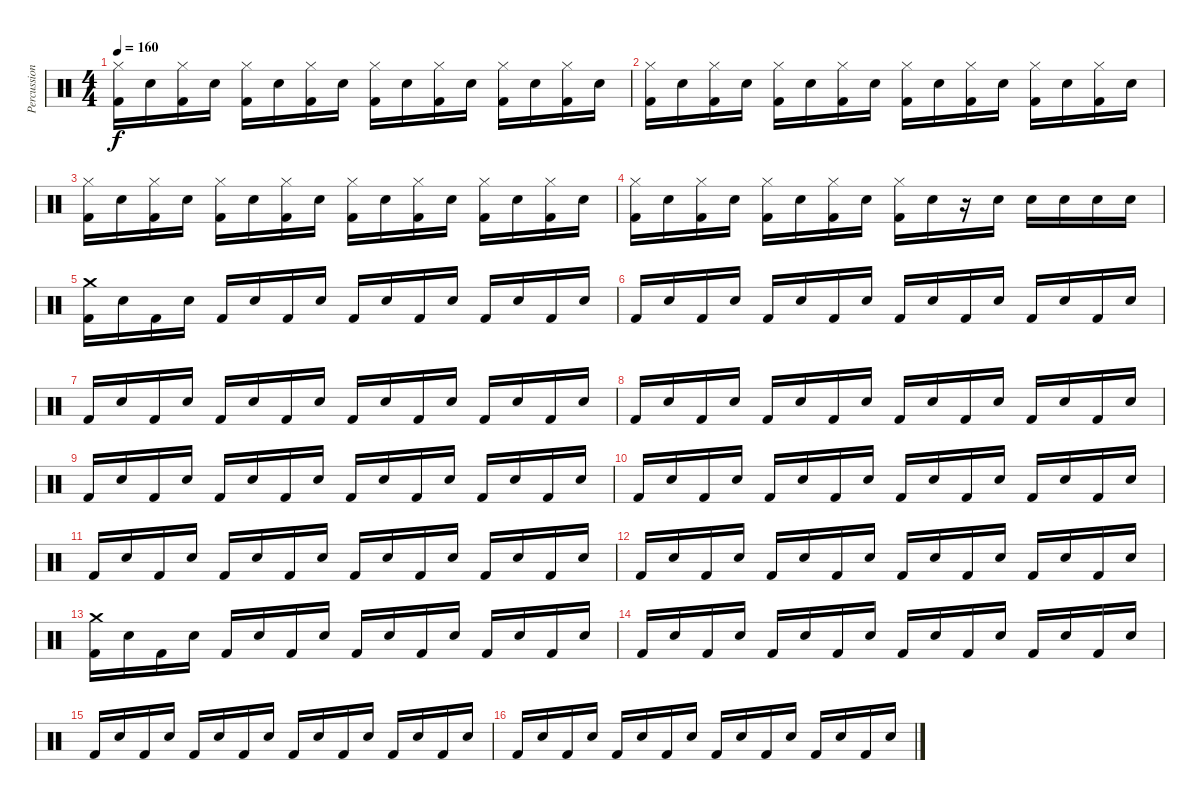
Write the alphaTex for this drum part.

\track ("Percussions" "Percussion") {instrument percussion}
\staff {score}
\articulation defaults
\ts (4 4)
\tempo 160
\clef neutral
\ks c
("Hi-Hat (closed)" "Kick (hit) 2").16{dy f} "Snare (hit) 2".16 ("Hi-Hat (closed)" "Kick (hit) 2").16 "Snare (hit) 2".16 ("Hi-Hat (closed)" "Kick (hit) 2").16 "Snare (hit) 2".16 ("Hi-Hat (closed)" "Kick (hit) 2").16 "Snare (hit) 2".16 ("Hi-Hat (closed)" "Kick (hit) 2").16 "Snare (hit) 2".16 ("Hi-Hat (closed)" "Kick (hit) 2").16 "Snare (hit) 2".16 ("Hi-Hat (closed)" "Kick (hit) 2").16 "Snare (hit) 2".16 ("Hi-Hat (closed)" "Kick (hit) 2").16 "Snare (hit) 2".16 |
("Hi-Hat (closed)" "Kick (hit) 2").16 "Snare (hit) 2".16 ("Hi-Hat (closed)" "Kick (hit) 2").16 "Snare (hit) 2".16 ("Hi-Hat (closed)" "Kick (hit) 2").16 "Snare (hit) 2".16 ("Hi-Hat (closed)" "Kick (hit) 2").16 "Snare (hit) 2".16 ("Hi-Hat (closed)" "Kick (hit) 2").16 "Snare (hit) 2".16 ("Hi-Hat (closed)" "Kick (hit) 2").16 "Snare (hit) 2".16 ("Hi-Hat (closed)" "Kick (hit) 2").16 "Snare (hit) 2".16 ("Hi-Hat (closed)" "Kick (hit) 2").16 "Snare (hit) 2".16 |
("Hi-Hat (closed)" "Kick (hit) 2").16 "Snare (hit) 2".16 ("Hi-Hat (closed)" "Kick (hit) 2").16 "Snare (hit) 2".16 ("Hi-Hat (closed)" "Kick (hit) 2").16 "Snare (hit) 2".16 ("Hi-Hat (closed)" "Kick (hit) 2").16 "Snare (hit) 2".16 ("Hi-Hat (closed)" "Kick (hit) 2").16 "Snare (hit) 2".16 ("Hi-Hat (closed)" "Kick (hit) 2").16 "Snare (hit) 2".16 ("Hi-Hat (closed)" "Kick (hit) 2").16 "Snare (hit) 2".16 ("Hi-Hat (closed)" "Kick (hit) 2").16 "Snare (hit) 2".16 |
("Hi-Hat (closed)" "Kick (hit) 2").16 "Snare (hit) 2".16 ("Hi-Hat (closed)" "Kick (hit) 2").16 "Snare (hit) 2".16 ("Hi-Hat (closed)" "Kick (hit) 2").16 "Snare (hit) 2".16 ("Hi-Hat (closed)" "Kick (hit) 2").16 "Snare (hit) 2".16 ("Hi-Hat (closed)" "Kick (hit) 2").16 "Snare (hit) 2".16 r.16 "Snare (hit) 2".16 "Snare (hit) 2".16 "Snare (hit) 2".16 "Snare (hit) 2".16 "Snare (hit) 2".16 |
("Crash medium (hit)" "Kick (hit) 2").16 "Snare (hit) 2".16 "Kick (hit) 2".16 "Snare (hit) 2".16 "Kick (hit) 2".16 "Snare (hit) 2".16 "Kick (hit) 2".16 "Snare (hit) 2".16 "Kick (hit) 2".16 "Snare (hit) 2".16 "Kick (hit) 2".16 "Snare (hit) 2".16 "Kick (hit) 2".16 "Snare (hit) 2".16 "Kick (hit) 2".16 "Snare (hit) 2".16 |
"Kick (hit) 2".16 "Snare (hit) 2".16 "Kick (hit) 2".16 "Snare (hit) 2".16 "Kick (hit) 2".16 "Snare (hit) 2".16 "Kick (hit) 2".16 "Snare (hit) 2".16 "Kick (hit) 2".16 "Snare (hit) 2".16 "Kick (hit) 2".16 "Snare (hit) 2".16 "Kick (hit) 2".16 "Snare (hit) 2".16 "Kick (hit) 2".16 "Snare (hit) 2".16 |
"Kick (hit) 2".16 "Snare (hit) 2".16 "Kick (hit) 2".16 "Snare (hit) 2".16 "Kick (hit) 2".16 "Snare (hit) 2".16 "Kick (hit) 2".16 "Snare (hit) 2".16 "Kick (hit) 2".16 "Snare (hit) 2".16 "Kick (hit) 2".16 "Snare (hit) 2".16 "Kick (hit) 2".16 "Snare (hit) 2".16 "Kick (hit) 2".16 "Snare (hit) 2".16 |
"Kick (hit) 2".16 "Snare (hit) 2".16 "Kick (hit) 2".16 "Snare (hit) 2".16 "Kick (hit) 2".16 "Snare (hit) 2".16 "Kick (hit) 2".16 "Snare (hit) 2".16 "Kick (hit) 2".16 "Snare (hit) 2".16 "Kick (hit) 2".16 "Snare (hit) 2".16 "Kick (hit) 2".16 "Snare (hit) 2".16 "Kick (hit) 2".16 "Snare (hit) 2".16 |
"Kick (hit) 2".16 "Snare (hit) 2".16 "Kick (hit) 2".16 "Snare (hit) 2".16 "Kick (hit) 2".16 "Snare (hit) 2".16 "Kick (hit) 2".16 "Snare (hit) 2".16 "Kick (hit) 2".16 "Snare (hit) 2".16 "Kick (hit) 2".16 "Snare (hit) 2".16 "Kick (hit) 2".16 "Snare (hit) 2".16 "Kick (hit) 2".16 "Snare (hit) 2".16 |
"Kick (hit) 2".16 "Snare (hit) 2".16 "Kick (hit) 2".16 "Snare (hit) 2".16 "Kick (hit) 2".16 "Snare (hit) 2".16 "Kick (hit) 2".16 "Snare (hit) 2".16 "Kick (hit) 2".16 "Snare (hit) 2".16 "Kick (hit) 2".16 "Snare (hit) 2".16 "Kick (hit) 2".16 "Snare (hit) 2".16 "Kick (hit) 2".16 "Snare (hit) 2".16 |
"Kick (hit) 2".16 "Snare (hit) 2".16 "Kick (hit) 2".16 "Snare (hit) 2".16 "Kick (hit) 2".16 "Snare (hit) 2".16 "Kick (hit) 2".16 "Snare (hit) 2".16 "Kick (hit) 2".16 "Snare (hit) 2".16 "Kick (hit) 2".16 "Snare (hit) 2".16 "Kick (hit) 2".16 "Snare (hit) 2".16 "Kick (hit) 2".16 "Snare (hit) 2".16 |
"Kick (hit) 2".16 "Snare (hit) 2".16 "Kick (hit) 2".16 "Snare (hit) 2".16 "Kick (hit) 2".16 "Snare (hit) 2".16 "Kick (hit) 2".16 "Snare (hit) 2".16 "Kick (hit) 2".16 "Snare (hit) 2".16 "Kick (hit) 2".16 "Snare (hit) 2".16 "Kick (hit) 2".16 "Snare (hit) 2".16 "Kick (hit) 2".16 "Snare (hit) 2".16 |
("Crash medium (hit)" "Kick (hit) 2").16 "Snare (hit) 2".16 "Kick (hit) 2".16 "Snare (hit) 2".16 "Kick (hit) 2".16 "Snare (hit) 2".16 "Kick (hit) 2".16 "Snare (hit) 2".16 "Kick (hit) 2".16 "Snare (hit) 2".16 "Kick (hit) 2".16 "Snare (hit) 2".16 "Kick (hit) 2".16 "Snare (hit) 2".16 "Kick (hit) 2".16 "Snare (hit) 2".16 |
"Kick (hit) 2".16 "Snare (hit) 2".16 "Kick (hit) 2".16 "Snare (hit) 2".16 "Kick (hit) 2".16 "Snare (hit) 2".16 "Kick (hit) 2".16 "Snare (hit) 2".16 "Kick (hit) 2".16 "Snare (hit) 2".16 "Kick (hit) 2".16 "Snare (hit) 2".16 "Kick (hit) 2".16 "Snare (hit) 2".16 "Kick (hit) 2".16 "Snare (hit) 2".16 |
"Kick (hit) 2".16 "Snare (hit) 2".16 "Kick (hit) 2".16 "Snare (hit) 2".16 "Kick (hit) 2".16 "Snare (hit) 2".16 "Kick (hit) 2".16 "Snare (hit) 2".16 "Kick (hit) 2".16 "Snare (hit) 2".16 "Kick (hit) 2".16 "Snare (hit) 2".16 "Kick (hit) 2".16 "Snare (hit) 2".16 "Kick (hit) 2".16 "Snare (hit) 2".16 |
"Kick (hit) 2".16 "Snare (hit) 2".16 "Kick (hit) 2".16 "Snare (hit) 2".16 "Kick (hit) 2".16 "Snare (hit) 2".16 "Kick (hit) 2".16 "Snare (hit) 2".16 "Kick (hit) 2".16 "Snare (hit) 2".16 "Kick (hit) 2".16 "Snare (hit) 2".16 "Kick (hit) 2".16 "Snare (hit) 2".16 "Kick (hit) 2".16 "Snare (hit) 2".16
